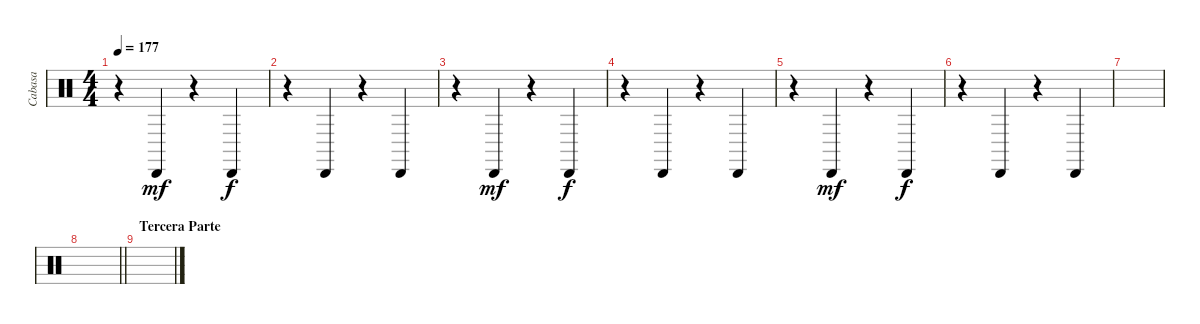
\track ("Cabasa" "Cabasa") {instrument percussion}
\staff {score}
\articulation defaults
\ts (4 4)
\tempo 177
\clef neutral
\ks c
r.4{dy f} "Cabasa (hit)".4{dy mf} r.4 "Cabasa (hit)".4{dy f} |
r.4 "Cabasa (hit)".4 r.4 "Cabasa (hit)".4 |
r.4 "Cabasa (hit)".4{dy mf} r.4 "Cabasa (hit)".4{dy f} |
r.4 "Cabasa (hit)".4 r.4 "Cabasa (hit)".4 |
r.4 "Cabasa (hit)".4{dy mf} r.4 "Cabasa (hit)".4{dy f} |
r.4 "Cabasa (hit)".4 r.4 "Cabasa (hit)".4 |
|
\barLineRight lightlight
|
\section ("" "Tercera Parte")
